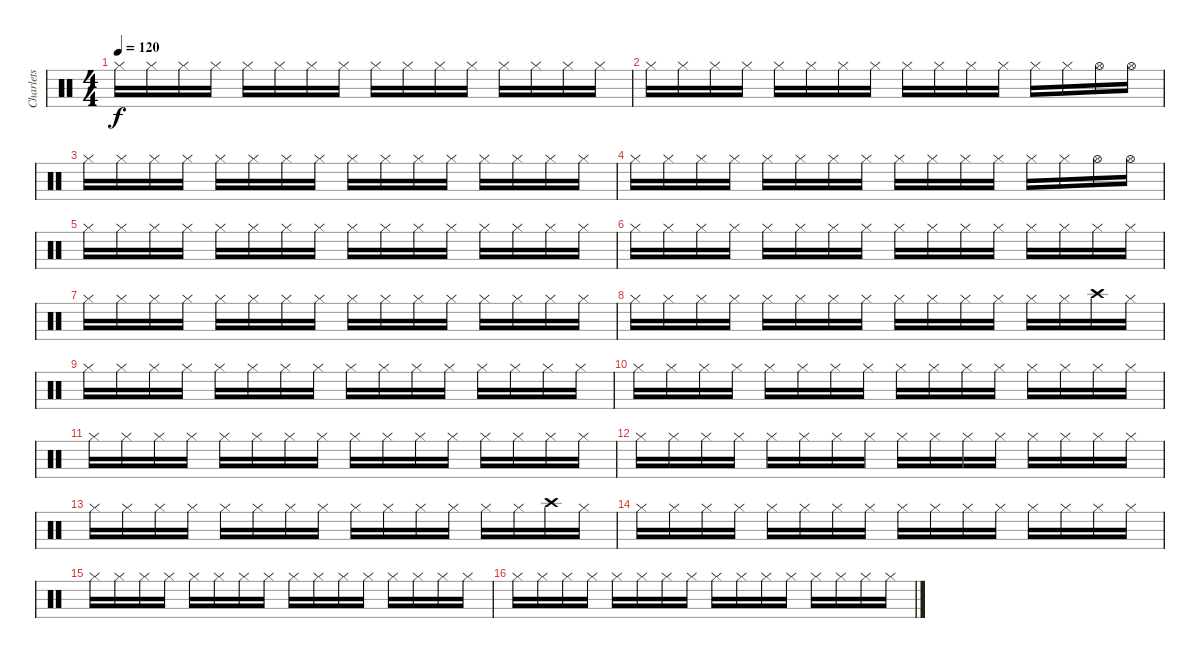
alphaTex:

\track ("Charlets" "Charlets") {instrument percussion}
\staff {score}
\articulation defaults
\ts (4 4)
\tempo 120
\clef neutral
\ks c "Hi-Hat (closed)".16{dy f} "Hi-Hat (closed)".16 "Hi-Hat (closed)".16 "Hi-Hat (closed)".16 "Hi-Hat (closed)".16 "Hi-Hat (closed)".16 "Hi-Hat (closed)".16 "Hi-Hat (closed)".16 "Hi-Hat (closed)".16 "Hi-Hat (closed)".16 "Hi-Hat (closed)".16 "Hi-Hat (closed)".16 "Hi-Hat (closed)".16 "Hi-Hat (closed)".16 "Hi-Hat (closed)".16 "Hi-Hat (closed)".16
|
"Hi-Hat (closed)".16 "Hi-Hat (closed)".16 "Hi-Hat (closed)".16 "Hi-Hat (closed)".16 "Hi-Hat (closed)".16 "Hi-Hat (closed)".16 "Hi-Hat (closed)".16 "Hi-Hat (closed)".16 "Hi-Hat (closed)".16 "Hi-Hat (closed)".16 "Hi-Hat (closed)".16 "Hi-Hat (closed)".16 "Hi-Hat (closed)".16 "Hi-Hat (closed)".16 "Hi-Hat (open)".16 "Hi-Hat (open)".16 |
"Hi-Hat (closed)".16 "Hi-Hat (closed)".16 "Hi-Hat (closed)".16 "Hi-Hat (closed)".16 "Hi-Hat (closed)".16 "Hi-Hat (closed)".16 "Hi-Hat (closed)".16 "Hi-Hat (closed)".16 "Hi-Hat (closed)".16 "Hi-Hat (closed)".16 "Hi-Hat (closed)".16 "Hi-Hat (closed)".16 "Hi-Hat (closed)".16 "Hi-Hat (closed)".16 "Hi-Hat (closed)".16 "Hi-Hat (closed)".16 |
"Hi-Hat (closed)".16 "Hi-Hat (closed)".16 "Hi-Hat (closed)".16 "Hi-Hat (closed)".16 "Hi-Hat (closed)".16 "Hi-Hat (closed)".16 "Hi-Hat (closed)".16 "Hi-Hat (closed)".16 "Hi-Hat (closed)".16 "Hi-Hat (closed)".16 "Hi-Hat (closed)".16 "Hi-Hat (closed)".16 "Hi-Hat (closed)".16 "Hi-Hat (closed)".16 "Hi-Hat (open)".16 "Hi-Hat (open)".16 |
"Hi-Hat (closed)".16 "Hi-Hat (closed)".16 "Hi-Hat (closed)".16 "Hi-Hat (closed)".16 "Hi-Hat (closed)".16 "Hi-Hat (closed)".16 "Hi-Hat (closed)".16 "Hi-Hat (closed)".16 "Hi-Hat (closed)".16 "Hi-Hat (closed)".16 "Hi-Hat (closed)".16 "Hi-Hat (closed)".16 "Hi-Hat (closed)".16 "Hi-Hat (closed)".16 "Hi-Hat (closed)".16 "Hi-Hat (closed)".16 |
"Hi-Hat (closed)".16 "Hi-Hat (closed)".16 "Hi-Hat (closed)".16 "Hi-Hat (closed)".16 "Hi-Hat (closed)".16 "Hi-Hat (closed)".16 "Hi-Hat (closed)".16 "Hi-Hat (closed)".16 "Hi-Hat (closed)".16 "Hi-Hat (closed)".16 "Hi-Hat (closed)".16 "Hi-Hat (closed)".16 "Hi-Hat (closed)".16 "Hi-Hat (closed)".16 "Hi-Hat (closed)".16 "Hi-Hat (closed)".16 |
"Hi-Hat (closed)".16 "Hi-Hat (closed)".16 "Hi-Hat (closed)".16 "Hi-Hat (closed)".16 "Hi-Hat (closed)".16 "Hi-Hat (closed)".16 "Hi-Hat (closed)".16 "Hi-Hat (closed)".16 "Hi-Hat (closed)".16 "Hi-Hat (closed)".16 "Hi-Hat (closed)".16 "Hi-Hat (closed)".16 "Hi-Hat (closed)".16 "Hi-Hat (closed)".16 "Hi-Hat (closed)".16 "Hi-Hat (closed)".16 |
"Hi-Hat (closed)".16 "Hi-Hat (closed)".16 "Hi-Hat (closed)".16 "Hi-Hat (closed)".16 "Hi-Hat (closed)".16 "Hi-Hat (closed)".16 "Hi-Hat (closed)".16 "Hi-Hat (closed)".16 "Hi-Hat (closed)".16 "Hi-Hat (closed)".16 "Hi-Hat (closed)".16 "Hi-Hat (closed)".16 "Hi-Hat (closed)".16 "Hi-Hat (closed)".16 "Crash high (hit)".16 "Hi-Hat (closed)".16 |
"Hi-Hat (closed)".16 "Hi-Hat (closed)".16 "Hi-Hat (closed)".16 "Hi-Hat (closed)".16 "Hi-Hat (closed)".16 "Hi-Hat (closed)".16 "Hi-Hat (closed)".16 "Hi-Hat (closed)".16 "Hi-Hat (closed)".16 "Hi-Hat (closed)".16 "Hi-Hat (closed)".16 "Hi-Hat (closed)".16 "Hi-Hat (closed)".16 "Hi-Hat (closed)".16 "Hi-Hat (closed)".16 "Hi-Hat (closed)".16 |
"Hi-Hat (closed)".16 "Hi-Hat (closed)".16 "Hi-Hat (closed)".16 "Hi-Hat (closed)".16 "Hi-Hat (closed)".16 "Hi-Hat (closed)".16 "Hi-Hat (closed)".16 "Hi-Hat (closed)".16 "Hi-Hat (closed)".16 "Hi-Hat (closed)".16 "Hi-Hat (closed)".16 "Hi-Hat (closed)".16 "Hi-Hat (closed)".16 "Hi-Hat (closed)".16 "Hi-Hat (closed)".16 "Hi-Hat (closed)".16 |
"Hi-Hat (closed)".16 "Hi-Hat (closed)".16 "Hi-Hat (closed)".16 "Hi-Hat (closed)".16 "Hi-Hat (closed)".16 "Hi-Hat (closed)".16 "Hi-Hat (closed)".16 "Hi-Hat (closed)".16 "Hi-Hat (closed)".16 "Hi-Hat (closed)".16 "Hi-Hat (closed)".16 "Hi-Hat (closed)".16 "Hi-Hat (closed)".16 "Hi-Hat (closed)".16 "Hi-Hat (closed)".16 "Hi-Hat (closed)".16 |
"Hi-Hat (closed)".16 "Hi-Hat (closed)".16 "Hi-Hat (closed)".16 "Hi-Hat (closed)".16 "Hi-Hat (closed)".16 "Hi-Hat (closed)".16 "Hi-Hat (closed)".16 "Hi-Hat (closed)".16 "Hi-Hat (closed)".16 "Hi-Hat (closed)".16 "Hi-Hat (closed)".16 "Hi-Hat (closed)".16 "Hi-Hat (closed)".16 "Hi-Hat (closed)".16 "Hi-Hat (closed)".16 "Hi-Hat (closed)".16 |
"Hi-Hat (closed)".16 "Hi-Hat (closed)".16 "Hi-Hat (closed)".16 "Hi-Hat (closed)".16 "Hi-Hat (closed)".16 "Hi-Hat (closed)".16 "Hi-Hat (closed)".16 "Hi-Hat (closed)".16 "Hi-Hat (closed)".16 "Hi-Hat (closed)".16 "Hi-Hat (closed)".16 "Hi-Hat (closed)".16 "Hi-Hat (closed)".16 "Hi-Hat (closed)".16 "Crash high (hit)".16 "Hi-Hat (closed)".16 |
"Hi-Hat (closed)".16 "Hi-Hat (closed)".16 "Hi-Hat (closed)".16 "Hi-Hat (closed)".16 "Hi-Hat (closed)".16 "Hi-Hat (closed)".16 "Hi-Hat (closed)".16 "Hi-Hat (closed)".16 "Hi-Hat (closed)".16 "Hi-Hat (closed)".16 "Hi-Hat (closed)".16 "Hi-Hat (closed)".16 "Hi-Hat (closed)".16 "Hi-Hat (closed)".16 "Hi-Hat (closed)".16 "Hi-Hat (closed)".16 |
"Hi-Hat (closed)".16 "Hi-Hat (closed)".16 "Hi-Hat (closed)".16 "Hi-Hat (closed)".16 "Hi-Hat (closed)".16 "Hi-Hat (closed)".16 "Hi-Hat (closed)".16 "Hi-Hat (closed)".16 "Hi-Hat (closed)".16 "Hi-Hat (closed)".16 "Hi-Hat (closed)".16 "Hi-Hat (closed)".16 "Hi-Hat (closed)".16 "Hi-Hat (closed)".16 "Hi-Hat (closed)".16 "Hi-Hat (closed)".16 |
"Hi-Hat (closed)".16 "Hi-Hat (closed)".16 "Hi-Hat (closed)".16 "Hi-Hat (closed)".16 "Hi-Hat (closed)".16 "Hi-Hat (closed)".16 "Hi-Hat (closed)".16 "Hi-Hat (closed)".16 "Hi-Hat (closed)".16 "Hi-Hat (closed)".16 "Hi-Hat (closed)".16 "Hi-Hat (closed)".16 "Hi-Hat (closed)".16 "Hi-Hat (closed)".16 "Hi-Hat (closed)".16 "Hi-Hat (closed)".16
